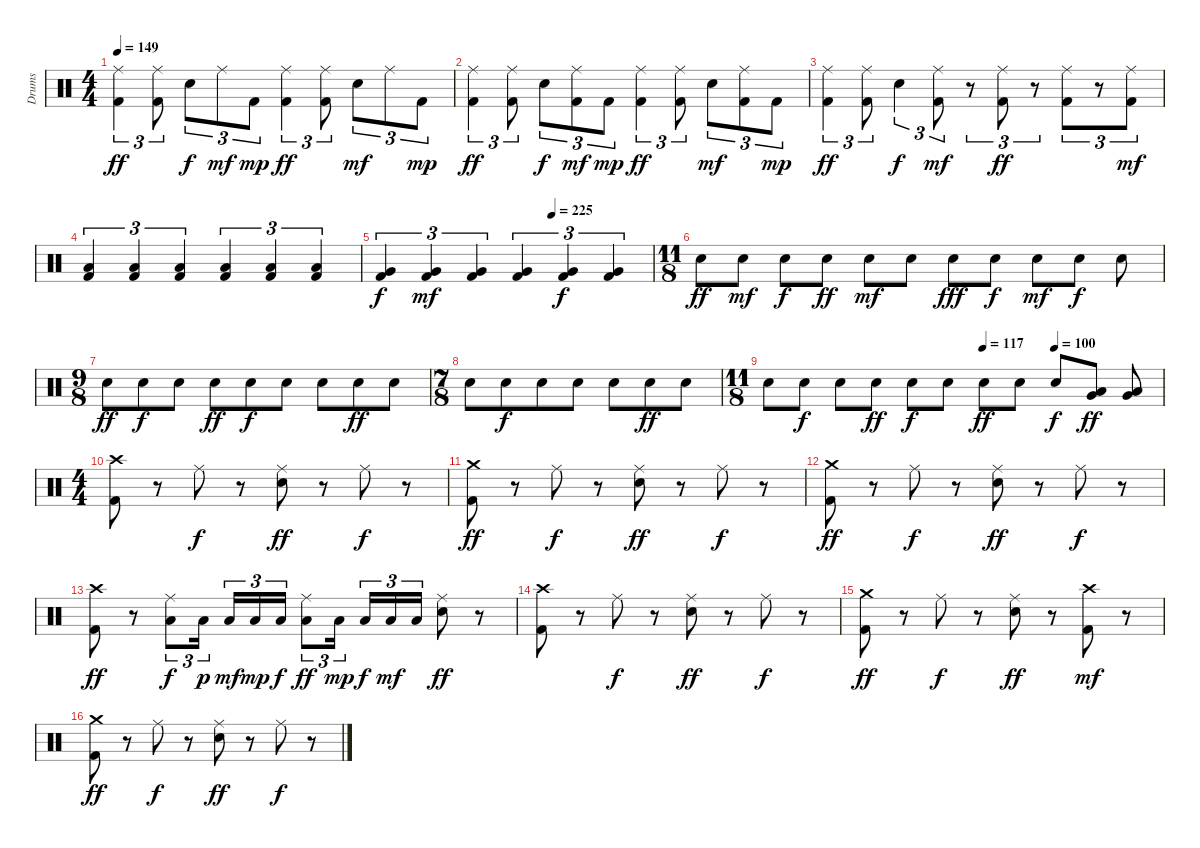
\track ("Drums" "Drums") {instrument percussion}
\staff {score}
\articulation defaults
\ts (4 4)
\tempo 149
\clef neutral
\ks c
("Kick (hit) 2" "Ride (middle)").4{tu (3 2) dy ff} ("Kick (hit) 2" "Ride (middle)").8{tu (3 2)} "Snare (hit) 2".8{tu (3 2) dy f} "Ride (middle)".8{tu (3 2) dy mf} "Kick (hit) 2".8{tu (3 2) dy mp} ("Kick (hit) 2" "Ride (middle)").4{tu (3 2) dy ff} ("Kick (hit) 2" "Ride (middle)").8{tu (3 2)} "Snare (hit) 2".8{tu (3 2) dy mf} "Ride (middle)".8{tu (3 2)} "Kick (hit) 2".8{tu (3 2) dy mp} |
("Kick (hit) 2" "Ride (middle)").4{tu (3 2) dy ff} ("Kick (hit) 2" "Ride (middle)").8{tu (3 2)} "Snare (hit) 2".8{tu (3 2) dy f} ("Kick (hit) 2" "Ride (middle)").8{tu (3 2) dy mf} "Kick (hit) 2".8{tu (3 2) dy mp} ("Kick (hit) 2" "Ride (middle)").4{tu (3 2) dy ff} ("Kick (hit) 2" "Ride (middle)").8{tu (3 2)} "Snare (hit) 2".8{tu (3 2) dy mf} ("Kick (hit) 2" "Ride (middle)").8{tu (3 2)} "Kick (hit) 2".8{tu (3 2) dy mp} |
("Kick (hit) 2" "Ride (middle)").4{tu (3 2) dy ff} ("Kick (hit) 2" "Ride (middle)").8{tu (3 2)} "Snare (hit) 2".4{tu (3 2) dy f} ("Kick (hit) 2" "Ride (middle)").8{tu (3 2) dy mf} r.8{tu (3 2)} ("Kick (hit) 2" "Ride (middle)").8{tu (3 2) dy ff} r.8{tu (3 2)} ("Kick (hit) 2" "Ride (middle)").8{tu (3 2)} r.8{tu (3 2)} ("Kick (hit) 2" "Ride (middle)").8{tu (3 2) dy mf} |
("Kick (hit) 2" "Low Tom (hit)").4{tu (3 2)} ("Kick (hit) 2" "Low Tom (hit)").4{tu (3 2)} ("Kick (hit) 2" "Low Tom (hit)").4{tu (3 2)} ("Kick (hit) 2" "Low Tom (hit)").4{tu (3 2)} ("Kick (hit) 2" "Low Tom (hit)").4{tu (3 2)} ("Kick (hit) 2" "Low Tom (hit)").4{tu (3 2)} |
\tempo (225 0.625)
("Kick (hit) 2" "Very Low Tom (hit)").4{tu (3 2) dy f} ("Kick (hit) 2" "Very Low Tom (hit)").4{tu (3 2) dy mf} ("Kick (hit) 2" "Very Low Tom (hit)").4{tu (3 2)} ("Kick (hit) 2" "Very Low Tom (hit)").4{tu (3 2)} ("Kick (hit) 2" "Very Low Tom (hit)").4{tu (3 2) dy f} ("Kick (hit) 2" "Very Low Tom (hit)").4{tu (3 2)} |
\ts (11 8)
"Snare (hit) 2".8{dy ff} "Snare (hit) 2".8{dy mf} "Snare (hit) 2".8{dy f} "Snare (hit) 2".8{dy ff} "Snare (hit) 2".8{dy mf} "Snare (hit) 2".8 "Snare (hit) 2".8{dy fff} "Snare (hit) 2".8{dy f} "Snare (hit) 2".8{dy mf} "Snare (hit) 2".8{dy f} "Snare (hit) 2".8 |
\ts (9 8)
"Snare (hit) 2".8{dy ff} "Snare (hit) 2".8{dy f} "Snare (hit) 2".8 "Snare (hit) 2".8{dy ff} "Snare (hit) 2".8{dy f} "Snare (hit) 2".8 "Snare (hit) 2".8 "Snare (hit) 2".8{dy ff} "Snare (hit) 2".8 |
\ts (7 8)
"Snare (hit) 2".8 "Snare (hit) 2".8{dy f} "Snare (hit) 2".8 "Snare (hit) 2".8 "Snare (hit) 2".8 "Snare (hit) 2".8{dy ff} "Snare (hit) 2".8 |
\ts (11 8)
\tempo (117 0.5454545454545454)
\tempo (100 0.7272727272727273)
"Snare (hit) 2".8 "Snare (hit) 2".8{dy f} "Snare (hit) 2".8 "Snare (hit) 2".8{dy ff} "Snare (hit) 2".8{dy f} "Snare (hit) 2".8 "Snare (hit) 2".8{dy ff} "Snare (hit) 2".8 "Snare (hit) 2".8{dy f} ("Very Low Tom (hit)" "Low Tom (hit)").8{dy ff} ("Low Floor Tom (hit)" "Very Low Tom (hit)").8 |
\ts (4 4)
("Kick (hit) 2" "Crash high (hit)").8 r.8 "Ride (middle)".8{dy f} r.8 ("Snare (hit) 2" "Ride (middle)").8{dy ff} r.8 "Ride (middle)".8{dy f} r.8 |
("Kick (hit) 2" "Crash medium (hit)").8{dy ff} r.8 "Ride (middle)".8{dy f} r.8 ("Snare (hit) 2" "Ride (middle)").8{dy ff} r.8 "Ride (middle)".8{dy f} r.8 |
("Kick (hit) 2" "Crash medium (hit)").8{dy ff} r.8 "Ride (middle)".8{dy f} r.8 ("Snare (hit) 2" "Ride (middle)").8{dy ff} r.8 "Ride (middle)".8{dy f} r.8 |
("Kick (hit) 2" "Crash high (hit)").8{dy ff} r.8 ("Low Tom (hit)" "Ride (middle)").8{tu (3 2) dy f} "Low Tom (hit)".16{tu (3 2) dy p} "Low Tom (hit)".16{tu (3 2) dy mf} "Low Tom (hit)".16{tu (3 2) dy mp} "Low Tom (hit)".16{tu (3 2) dy f} ("Low Floor Tom (hit)" "Ride (middle)").8{tu (3 2) dy ff} "Low Floor Tom (hit)".16{tu (3 2) dy mp} "Low Floor Tom (hit)".16{tu (3 2) dy f} "Low Floor Tom (hit)".16{tu (3 2) dy mf} "Low Floor Tom (hit)".16{tu (3 2)} ("Snare (hit) 2" "Ride (middle)").8{dy ff} r.8 |
("Kick (hit) 2" "Crash high (hit)").8 r.8 "Ride (middle)".8{dy f} r.8 ("Snare (hit) 2" "Ride (middle)").8{dy ff} r.8 "Ride (middle)".8{dy f} r.8 |
("Kick (hit) 2" "Crash medium (hit)").8{dy ff} r.8 "Ride (middle)".8{dy f} r.8 ("Snare (hit) 2" "Ride (middle)").8{dy ff} r.8 ("Kick (hit) 2" "Crash high (hit)").8{dy mf} r.8 |
("Kick (hit) 2" "Crash medium (hit)").8{dy ff} r.8 "Ride (middle)".8{dy f} r.8 ("Snare (hit) 2" "Ride (middle)").8{dy ff} r.8 "Ride (middle)".8{dy f} r.8
